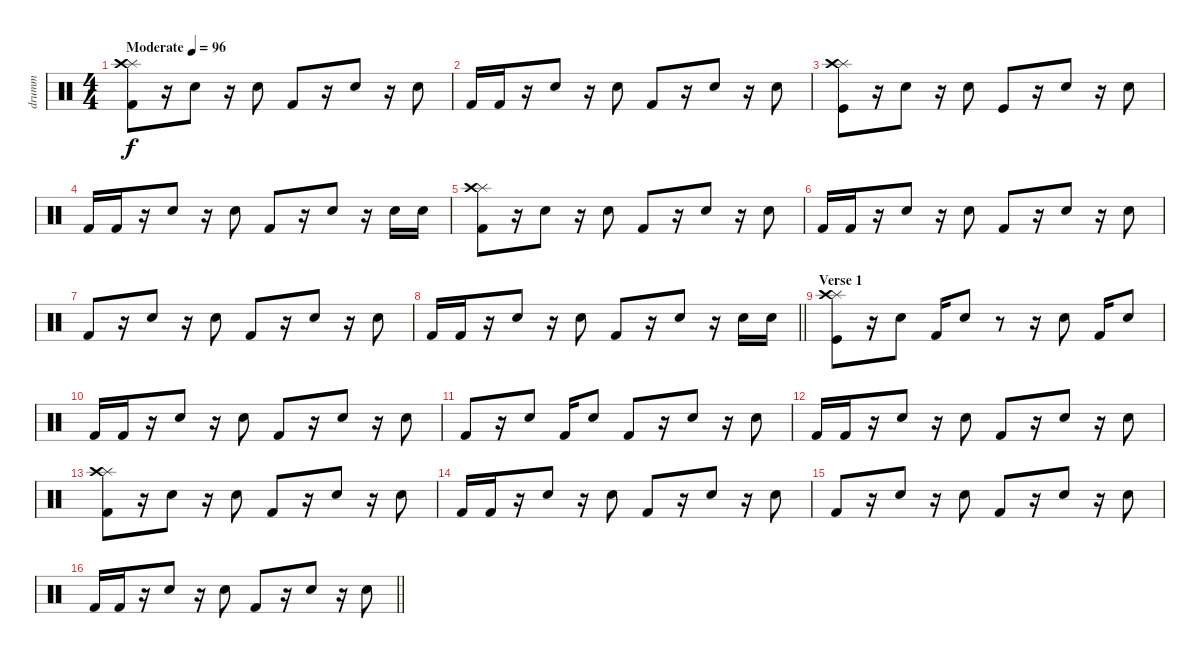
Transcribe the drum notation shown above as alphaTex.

\track ("drumm" "drumm") {instrument percussion}
\staff {score}
\articulation defaults
\ts (4 4)
\tempo (96 "Moderate")
\clef neutral
\ks c
("Splash (hit)" "Crash high (hit)" "Kick (hit) 2").8{dy f} r.16 "Electric Snare (hit)".8 r.16 "Electric Snare (hit)".8 "Kick (hit) 2".8 r.16 "Electric Snare (hit)".8 r.16 "Electric Snare (hit)".8 |
"Kick (hit) 2".16 "Kick (hit) 2".16 r.16 "Electric Snare (hit)".8 r.16 "Electric Snare (hit)".8 "Kick (hit) 2".8 r.16 "Electric Snare (hit)".8 r.16 "Electric Snare (hit)".8 |
("Splash (hit)" "Crash high (hit)" "Kick (hit)").8 r.16 "Electric Snare (hit)".8 r.16 "Electric Snare (hit)".8 "Kick (hit)".8 r.16 "Electric Snare (hit)".8 r.16 "Electric Snare (hit)".8 |
"Kick (hit) 2".16 "Kick (hit) 2".16 r.16 "Electric Snare (hit)".8 r.16 "Electric Snare (hit)".8 "Kick (hit) 2".8 r.16 "Electric Snare (hit)".8 r.16 "Electric Snare (hit)".16 "Electric Snare (hit)".16 |
("Splash (hit)" "Crash high (hit)" "Kick (hit) 2").8 r.16 "Electric Snare (hit)".8 r.16 "Electric Snare (hit)".8 "Kick (hit) 2".8 r.16 "Electric Snare (hit)".8 r.16 "Electric Snare (hit)".8 |
"Kick (hit) 2".16 "Kick (hit) 2".16 r.16 "Electric Snare (hit)".8 r.16 "Electric Snare (hit)".8 "Kick (hit) 2".8 r.16 "Electric Snare (hit)".8 r.16 "Electric Snare (hit)".8 |
"Kick (hit) 2".8 r.16 "Electric Snare (hit)".8 r.16 "Electric Snare (hit)".8 "Kick (hit) 2".8 r.16 "Electric Snare (hit)".8 r.16 "Electric Snare (hit)".8 |
\barLineRight lightlight "Kick (hit) 2".16 "Kick (hit) 2".16
r.16 "Electric Snare (hit)".8 r.16 "Electric Snare (hit)".8 "Kick (hit) 2".8 r.16 "Electric Snare (hit)".8 r.16 "Electric Snare (hit)".16 "Electric Snare (hit)".16 |
\section ("" "Verse 1")
("Splash (hit)" "Crash high (hit)" "Kick (hit)").8 r.16 "Electric Snare (hit)".8 "Kick (hit) 2".16 "Electric Snare (hit)".8 r.8 r.16 "Electric Snare (hit)".8 "Kick (hit) 2".16 "Electric Snare (hit)".8 |
"Kick (hit) 2".16 "Kick (hit) 2".16 r.16 "Electric Snare (hit)".8 r.16 "Electric Snare (hit)".8 "Kick (hit) 2".8 r.16 "Electric Snare (hit)".8 r.16 "Electric Snare (hit)".8 |
"Kick (hit) 2".8 r.16 "Electric Snare (hit)".8 "Kick (hit) 2".16 "Electric Snare (hit)".8 "Kick (hit) 2".8 r.16 "Electric Snare (hit)".8 r.16 "Electric Snare (hit)".8 |
"Kick (hit) 2".16 "Kick (hit) 2".16 r.16 "Electric Snare (hit)".8 r.16 "Electric Snare (hit)".8 "Kick (hit) 2".8 r.16 "Electric Snare (hit)".8 r.16 "Electric Snare (hit)".8 |
("Splash (hit)" "Crash high (hit)" "Kick (hit) 2").8 r.16 "Electric Snare (hit)".8 r.16 "Electric Snare (hit)".8 "Kick (hit) 2".8 r.16 "Electric Snare (hit)".8 r.16 "Electric Snare (hit)".8 |
"Kick (hit) 2".16 "Kick (hit) 2".16 r.16 "Electric Snare (hit)".8 r.16 "Electric Snare (hit)".8 "Kick (hit) 2".8 r.16 "Electric Snare (hit)".8 r.16 "Electric Snare (hit)".8 |
"Kick (hit) 2".8 r.16 "Electric Snare (hit)".8 r.16 "Electric Snare (hit)".8 "Kick (hit) 2".8 r.16 "Electric Snare (hit)".8 r.16 "Electric Snare (hit)".8 |
\barLineRight lightlight "Kick (hit) 2".16 "Kick (hit) 2".16
r.16 "Electric Snare (hit)".8 r.16 "Electric Snare (hit)".8 "Kick (hit) 2".8 r.16 "Electric Snare (hit)".8 r.16 "Electric Snare (hit)".8
